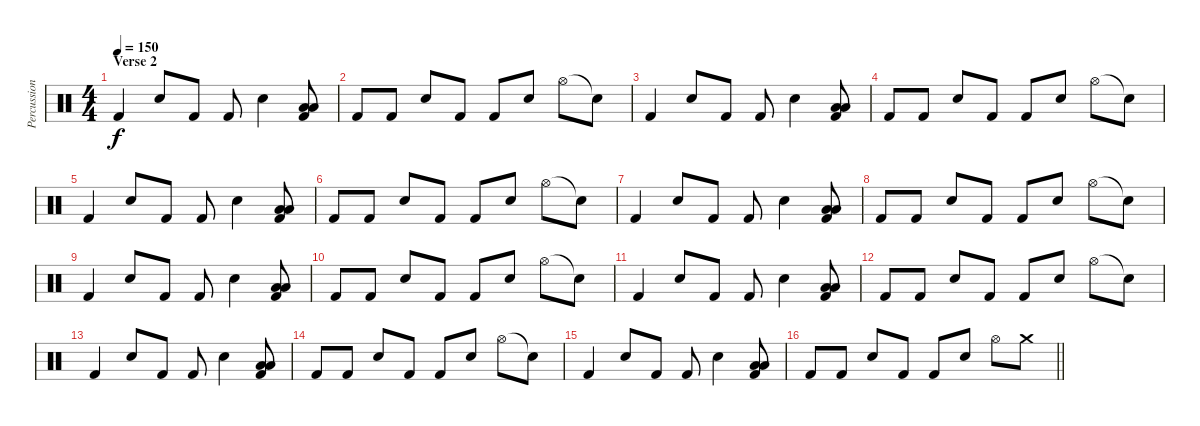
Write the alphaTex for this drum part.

\track ("Percussion" "Percussion") {instrument percussion}
\staff {score}
\articulation defaults
\ts (4 4)
\section ("" "Verse 2")
\tempo 150
\clef neutral
\ks c "Kick (hit) 2".4{dy f} "Electric Snare (hit)".8 "Kick (hit) 2".8 "Kick (hit) 2".8 "Electric Snare (hit)".4
("Kick (hit) 2" "Low Tom (hit)" "Low Floor Tom (hit)").8 |
"Kick (hit) 2".8 "Kick (hit) 2".8 "Electric Snare (hit)".8 "Kick (hit) 2".8 "Kick (hit) 2".8 "Electric Snare (hit)".8 "Hi-Hat (open)".8 "Snare (hit)"{t}.8 |
"Kick (hit) 2".4 "Electric Snare (hit)".8 "Kick (hit) 2".8 "Kick (hit) 2".8 "Electric Snare (hit)".4 ("Kick (hit) 2" "Low Tom (hit)" "Low Floor Tom (hit)").8 |
"Kick (hit) 2".8 "Kick (hit) 2".8 "Electric Snare (hit)".8 "Kick (hit) 2".8 "Kick (hit) 2".8 "Electric Snare (hit)".8 "Hi-Hat (open)".8 "Snare (hit)"{t}.8 |
"Kick (hit) 2".4 "Electric Snare (hit)".8 "Kick (hit) 2".8 "Kick (hit) 2".8 "Electric Snare (hit)".4 ("Kick (hit) 2" "Low Tom (hit)" "Low Floor Tom (hit)").8 |
"Kick (hit) 2".8 "Kick (hit) 2".8 "Electric Snare (hit)".8 "Kick (hit) 2".8 "Kick (hit) 2".8 "Electric Snare (hit)".8 "Hi-Hat (open)".8 "Snare (hit)"{t}.8 |
"Kick (hit) 2".4 "Electric Snare (hit)".8 "Kick (hit) 2".8 "Kick (hit) 2".8 "Electric Snare (hit)".4 ("Kick (hit) 2" "Low Tom (hit)" "Low Floor Tom (hit)").8 |
"Kick (hit) 2".8 "Kick (hit) 2".8 "Electric Snare (hit)".8 "Kick (hit) 2".8 "Kick (hit) 2".8 "Electric Snare (hit)".8 "Hi-Hat (open)".8 "Snare (hit)"{t}.8 |
"Kick (hit) 2".4 "Electric Snare (hit)".8 "Kick (hit) 2".8 "Kick (hit) 2".8 "Electric Snare (hit)".4 ("Kick (hit) 2" "Low Tom (hit)" "Low Floor Tom (hit)").8 |
"Kick (hit) 2".8 "Kick (hit) 2".8 "Electric Snare (hit)".8 "Kick (hit) 2".8 "Kick (hit) 2".8 "Electric Snare (hit)".8 "Hi-Hat (open)".8 "Snare (hit)"{t}.8 |
"Kick (hit) 2".4 "Electric Snare (hit)".8 "Kick (hit) 2".8 "Kick (hit) 2".8 "Electric Snare (hit)".4 ("Kick (hit) 2" "Low Tom (hit)" "Low Floor Tom (hit)").8 |
"Kick (hit) 2".8 "Kick (hit) 2".8 "Electric Snare (hit)".8 "Kick (hit) 2".8 "Kick (hit) 2".8 "Electric Snare (hit)".8 "Hi-Hat (open)".8 "Snare (hit)"{t}.8 |
"Kick (hit) 2".4 "Electric Snare (hit)".8 "Kick (hit) 2".8 "Kick (hit) 2".8 "Electric Snare (hit)".4 ("Kick (hit) 2" "Low Tom (hit)" "Low Floor Tom (hit)").8 |
"Kick (hit) 2".8 "Kick (hit) 2".8 "Electric Snare (hit)".8 "Kick (hit) 2".8 "Kick (hit) 2".8 "Electric Snare (hit)".8 "Hi-Hat (open)".8 "Snare (hit)"{t}.8 |
"Kick (hit) 2".4 "Electric Snare (hit)".8 "Kick (hit) 2".8 "Kick (hit) 2".8 "Electric Snare (hit)".4 ("Kick (hit) 2" "Low Tom (hit)" "Low Floor Tom (hit)").8 |
\barLineRight lightlight "Kick (hit) 2".8 "Kick (hit) 2".8 "Electric Snare (hit)".8 "Kick (hit) 2".8 "Kick (hit) 2".8 "Electric Snare (hit)".8 "Hi-Hat (open)".8 "Crash medium (hit)".8
